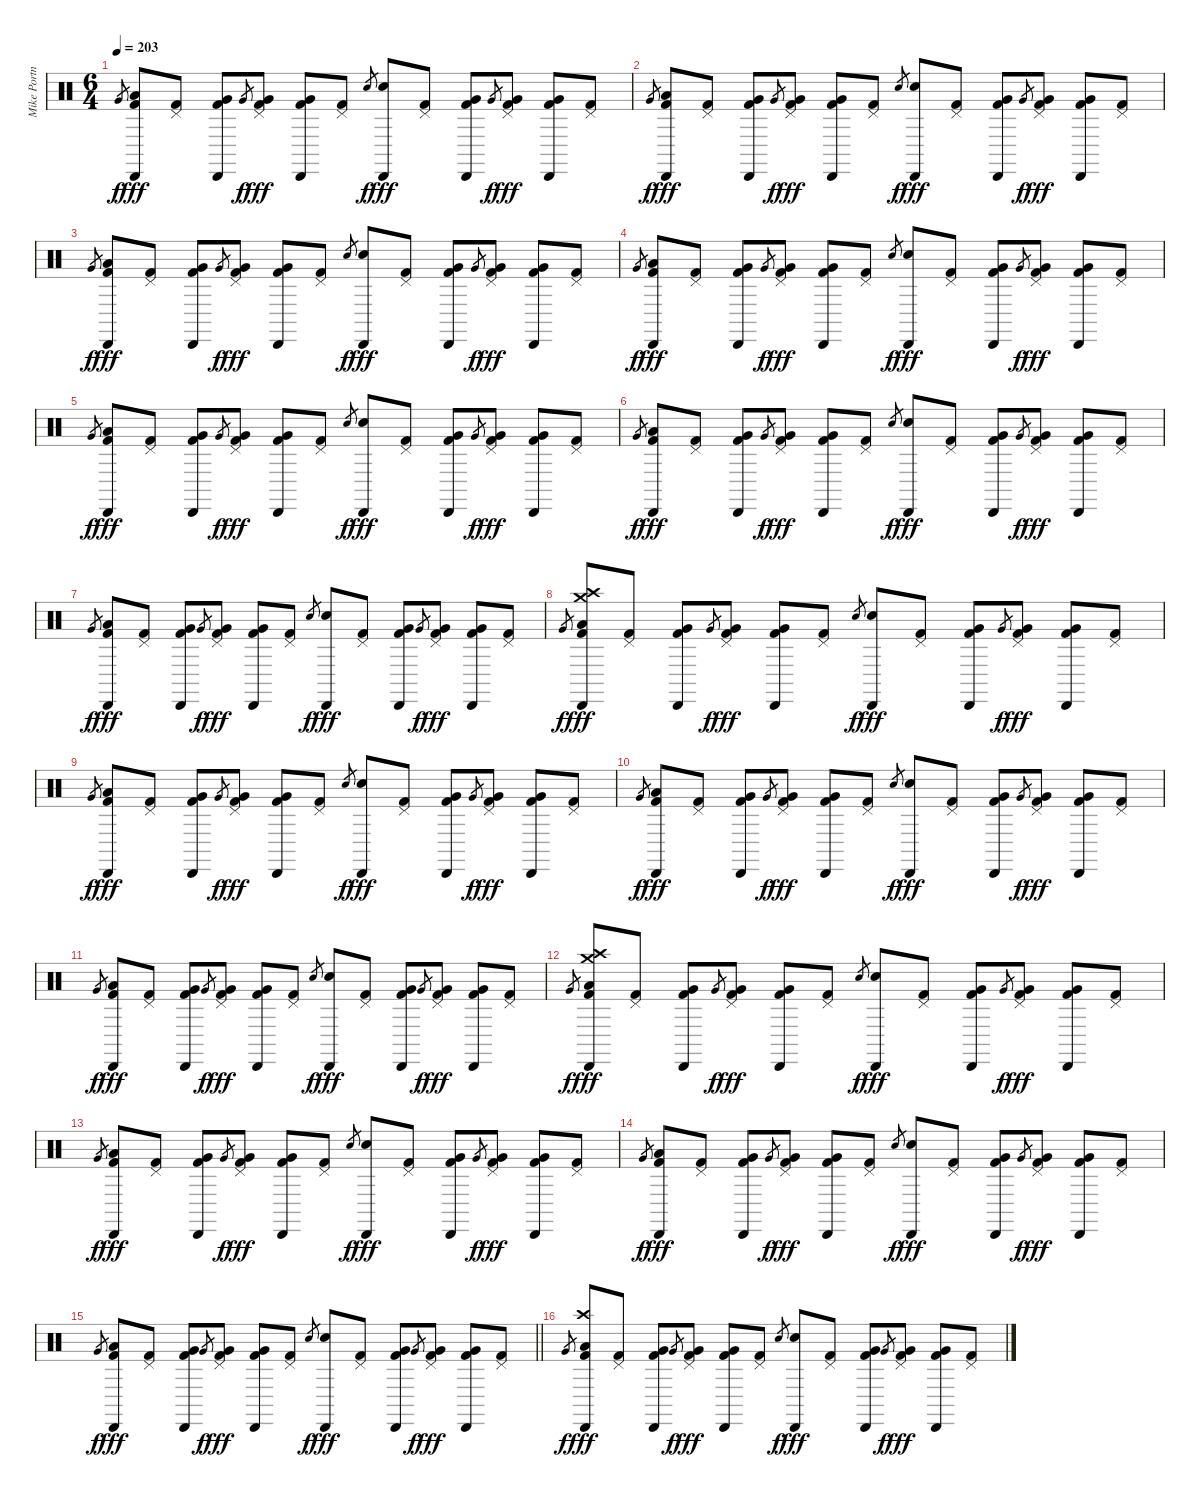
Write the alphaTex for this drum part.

\track ("Mike Portnoy" "Mike Portn") {instrument percussion}
\staff {score}
\articulation defaults
\ts (6 4)
\tempo 203
\clef neutral
\ks c "Very Low Tom (hit)".8{gr dy f}
("Cabasa (hit)" "Low Tom (hit)" "Kick (hit) 2").8{dy fff} ("Pedal Hi-Hat (hit)" "Kick (hit) 2").8 ("Cabasa (hit)" "Very Low Tom (hit)" "Kick (hit) 2").8 "Very Low Tom (hit)".8{gr dy f} ("Pedal Hi-Hat (hit)" "Very Low Tom (hit)" "Kick (hit) 2").8{dy fff} ("Cabasa (hit)" "Very Low Tom (hit)" "Kick (hit) 2").8 ("Pedal Hi-Hat (hit)" "Kick (hit) 2").8 "Electric Snare (hit)".8{gr dy f} ("Cabasa (hit)" "Electric Snare (hit)").8{dy fff} ("Pedal Hi-Hat (hit)" "Kick (hit) 2").8 ("Cabasa (hit)" "Very Low Tom (hit)" "Kick (hit) 2").8 "Very Low Tom (hit)".8{gr dy f} ("Pedal Hi-Hat (hit)" "Very Low Tom (hit)" "Kick (hit) 2").8{dy fff} ("Cabasa (hit)" "Very Low Tom (hit)" "Kick (hit) 2").8 ("Pedal Hi-Hat (hit)" "Kick (hit) 2").8 |
"Very Low Tom (hit)".8{gr dy f} ("Cabasa (hit)" "Low Tom (hit)" "Kick (hit) 2").8{dy fff} ("Pedal Hi-Hat (hit)" "Kick (hit) 2").8 ("Cabasa (hit)" "Very Low Tom (hit)" "Kick (hit) 2").8 "Very Low Tom (hit)".8{gr dy f} ("Pedal Hi-Hat (hit)" "Very Low Tom (hit)" "Kick (hit) 2").8{dy fff} ("Cabasa (hit)" "Very Low Tom (hit)" "Kick (hit) 2").8 ("Pedal Hi-Hat (hit)" "Kick (hit) 2").8 "Electric Snare (hit)".8{gr dy f} ("Cabasa (hit)" "Electric Snare (hit)").8{dy fff} ("Pedal Hi-Hat (hit)" "Kick (hit) 2").8 ("Cabasa (hit)" "Very Low Tom (hit)" "Kick (hit) 2").8 "Very Low Tom (hit)".8{gr dy f} ("Pedal Hi-Hat (hit)" "Very Low Tom (hit)" "Kick (hit) 2").8{dy fff} ("Cabasa (hit)" "Very Low Tom (hit)" "Kick (hit) 2").8 ("Pedal Hi-Hat (hit)" "Kick (hit) 2").8 |
"Very Low Tom (hit)".8{gr dy f} ("Cabasa (hit)" "Low Tom (hit)" "Kick (hit) 2").8{dy fff} ("Pedal Hi-Hat (hit)" "Kick (hit) 2").8 ("Cabasa (hit)" "Very Low Tom (hit)" "Kick (hit) 2").8 "Very Low Tom (hit)".8{gr dy f} ("Pedal Hi-Hat (hit)" "Very Low Tom (hit)" "Kick (hit) 2").8{dy fff} ("Cabasa (hit)" "Very Low Tom (hit)" "Kick (hit) 2").8 ("Pedal Hi-Hat (hit)" "Kick (hit) 2").8 "Electric Snare (hit)".8{gr dy f} ("Cabasa (hit)" "Electric Snare (hit)").8{dy fff} ("Pedal Hi-Hat (hit)" "Kick (hit) 2").8 ("Cabasa (hit)" "Very Low Tom (hit)" "Kick (hit) 2").8 "Very Low Tom (hit)".8{gr dy f} ("Pedal Hi-Hat (hit)" "Very Low Tom (hit)" "Kick (hit) 2").8{dy fff} ("Cabasa (hit)" "Very Low Tom (hit)" "Kick (hit) 2").8 ("Pedal Hi-Hat (hit)" "Kick (hit) 2").8 |
"Very Low Tom (hit)".8{gr dy f} ("Cabasa (hit)" "Low Tom (hit)" "Kick (hit) 2").8{dy fff} ("Pedal Hi-Hat (hit)" "Kick (hit) 2").8 ("Cabasa (hit)" "Very Low Tom (hit)" "Kick (hit) 2").8 "Very Low Tom (hit)".8{gr dy f} ("Pedal Hi-Hat (hit)" "Very Low Tom (hit)" "Kick (hit) 2").8{dy fff} ("Cabasa (hit)" "Very Low Tom (hit)" "Kick (hit) 2").8 ("Pedal Hi-Hat (hit)" "Kick (hit) 2").8 "Electric Snare (hit)".8{gr dy f} ("Cabasa (hit)" "Electric Snare (hit)").8{dy fff} ("Pedal Hi-Hat (hit)" "Kick (hit) 2").8 ("Cabasa (hit)" "Very Low Tom (hit)" "Kick (hit) 2").8 "Very Low Tom (hit)".8{gr dy f} ("Pedal Hi-Hat (hit)" "Very Low Tom (hit)" "Kick (hit) 2").8{dy fff} ("Cabasa (hit)" "Very Low Tom (hit)" "Kick (hit) 2").8 ("Pedal Hi-Hat (hit)" "Kick (hit) 2").8 |
"Very Low Tom (hit)".8{gr dy f} ("Cabasa (hit)" "Low Tom (hit)" "Kick (hit) 2").8{dy fff} ("Pedal Hi-Hat (hit)" "Kick (hit) 2").8 ("Cabasa (hit)" "Very Low Tom (hit)" "Kick (hit) 2").8 "Very Low Tom (hit)".8{gr dy f} ("Pedal Hi-Hat (hit)" "Very Low Tom (hit)" "Kick (hit) 2").8{dy fff} ("Cabasa (hit)" "Very Low Tom (hit)" "Kick (hit) 2").8 ("Pedal Hi-Hat (hit)" "Kick (hit) 2").8 "Electric Snare (hit)".8{gr dy f} ("Cabasa (hit)" "Electric Snare (hit)").8{dy fff} ("Pedal Hi-Hat (hit)" "Kick (hit) 2").8 ("Cabasa (hit)" "Very Low Tom (hit)" "Kick (hit) 2").8 "Very Low Tom (hit)".8{gr dy f} ("Pedal Hi-Hat (hit)" "Very Low Tom (hit)" "Kick (hit) 2").8{dy fff} ("Cabasa (hit)" "Very Low Tom (hit)" "Kick (hit) 2").8 ("Pedal Hi-Hat (hit)" "Kick (hit) 2").8 |
"Very Low Tom (hit)".8{gr dy f} ("Cabasa (hit)" "Low Tom (hit)" "Kick (hit) 2").8{dy fff} ("Pedal Hi-Hat (hit)" "Kick (hit) 2").8 ("Cabasa (hit)" "Very Low Tom (hit)" "Kick (hit) 2").8 "Very Low Tom (hit)".8{gr dy f} ("Pedal Hi-Hat (hit)" "Very Low Tom (hit)" "Kick (hit) 2").8{dy fff} ("Cabasa (hit)" "Very Low Tom (hit)" "Kick (hit) 2").8 ("Pedal Hi-Hat (hit)" "Kick (hit) 2").8 "Electric Snare (hit)".8{gr dy f} ("Cabasa (hit)" "Electric Snare (hit)").8{dy fff} ("Pedal Hi-Hat (hit)" "Kick (hit) 2").8 ("Cabasa (hit)" "Very Low Tom (hit)" "Kick (hit) 2").8 "Very Low Tom (hit)".8{gr dy f} ("Pedal Hi-Hat (hit)" "Very Low Tom (hit)" "Kick (hit) 2").8{dy fff} ("Cabasa (hit)" "Very Low Tom (hit)" "Kick (hit) 2").8 ("Pedal Hi-Hat (hit)" "Kick (hit) 2").8 |
"Very Low Tom (hit)".8{gr dy f} ("Cabasa (hit)" "Low Tom (hit)" "Kick (hit) 2").8{dy fff} ("Pedal Hi-Hat (hit)" "Kick (hit) 2").8 ("Cabasa (hit)" "Very Low Tom (hit)" "Kick (hit) 2").8 "Very Low Tom (hit)".8{gr dy f} ("Pedal Hi-Hat (hit)" "Very Low Tom (hit)" "Kick (hit) 2").8{dy fff} ("Cabasa (hit)" "Very Low Tom (hit)" "Kick (hit) 2").8 ("Pedal Hi-Hat (hit)" "Kick (hit) 2").8 "Electric Snare (hit)".8{gr dy f} ("Cabasa (hit)" "Electric Snare (hit)").8{dy fff} ("Pedal Hi-Hat (hit)" "Kick (hit) 2").8 ("Cabasa (hit)" "Very Low Tom (hit)" "Kick (hit) 2").8 "Very Low Tom (hit)".8{gr dy f} ("Pedal Hi-Hat (hit)" "Very Low Tom (hit)" "Kick (hit) 2").8{dy fff} ("Cabasa (hit)" "Very Low Tom (hit)" "Kick (hit) 2").8 ("Pedal Hi-Hat (hit)" "Kick (hit) 2").8 |
"Very Low Tom (hit)".8{gr dy f} ("Crash high (hit)" "Crash medium (hit)" "Cabasa (hit)" "Low Tom (hit)" "Kick (hit) 2").8{dy fff} ("Pedal Hi-Hat (hit)" "Kick (hit) 2").8 ("Cabasa (hit)" "Very Low Tom (hit)" "Kick (hit) 2").8 "Very Low Tom (hit)".8{gr dy f} ("Pedal Hi-Hat (hit)" "Very Low Tom (hit)" "Kick (hit) 2").8{dy fff} ("Cabasa (hit)" "Very Low Tom (hit)" "Kick (hit) 2").8 ("Pedal Hi-Hat (hit)" "Kick (hit) 2").8 "Electric Snare (hit)".8{gr dy f} ("Cabasa (hit)" "Electric Snare (hit)").8{dy fff} ("Pedal Hi-Hat (hit)" "Kick (hit) 2").8 ("Cabasa (hit)" "Very Low Tom (hit)" "Kick (hit) 2").8 "Very Low Tom (hit)".8{gr dy f} ("Pedal Hi-Hat (hit)" "Very Low Tom (hit)" "Kick (hit) 2").8{dy fff} ("Cabasa (hit)" "Very Low Tom (hit)" "Kick (hit) 2").8 ("Pedal Hi-Hat (hit)" "Kick (hit) 2").8 |
"Very Low Tom (hit)".8{gr dy f} ("Cabasa (hit)" "Low Tom (hit)" "Kick (hit) 2").8{dy fff} ("Pedal Hi-Hat (hit)" "Kick (hit) 2").8 ("Cabasa (hit)" "Very Low Tom (hit)" "Kick (hit) 2").8 "Very Low Tom (hit)".8{gr dy f} ("Pedal Hi-Hat (hit)" "Very Low Tom (hit)" "Kick (hit) 2").8{dy fff} ("Cabasa (hit)" "Very Low Tom (hit)" "Kick (hit) 2").8 ("Pedal Hi-Hat (hit)" "Kick (hit) 2").8 "Electric Snare (hit)".8{gr dy f} ("Cabasa (hit)" "Electric Snare (hit)").8{dy fff} ("Pedal Hi-Hat (hit)" "Kick (hit) 2").8 ("Cabasa (hit)" "Very Low Tom (hit)" "Kick (hit) 2").8 "Very Low Tom (hit)".8{gr dy f} ("Pedal Hi-Hat (hit)" "Very Low Tom (hit)" "Kick (hit) 2").8{dy fff} ("Cabasa (hit)" "Very Low Tom (hit)" "Kick (hit) 2").8 ("Pedal Hi-Hat (hit)" "Kick (hit) 2").8 |
"Very Low Tom (hit)".8{gr dy f} ("Cabasa (hit)" "Low Tom (hit)" "Kick (hit) 2").8{dy fff} ("Pedal Hi-Hat (hit)" "Kick (hit) 2").8 ("Cabasa (hit)" "Very Low Tom (hit)" "Kick (hit) 2").8 "Very Low Tom (hit)".8{gr dy f} ("Pedal Hi-Hat (hit)" "Very Low Tom (hit)" "Kick (hit) 2").8{dy fff} ("Cabasa (hit)" "Very Low Tom (hit)" "Kick (hit) 2").8 ("Pedal Hi-Hat (hit)" "Kick (hit) 2").8 "Electric Snare (hit)".8{gr dy f} ("Cabasa (hit)" "Electric Snare (hit)").8{dy fff} ("Pedal Hi-Hat (hit)" "Kick (hit) 2").8 ("Cabasa (hit)" "Very Low Tom (hit)" "Kick (hit) 2").8 "Very Low Tom (hit)".8{gr dy f} ("Pedal Hi-Hat (hit)" "Very Low Tom (hit)" "Kick (hit) 2").8{dy fff} ("Cabasa (hit)" "Very Low Tom (hit)" "Kick (hit) 2").8 ("Pedal Hi-Hat (hit)" "Kick (hit) 2").8 |
"Very Low Tom (hit)".8{gr dy f} ("Cabasa (hit)" "Low Tom (hit)" "Kick (hit) 2").8{dy fff} ("Pedal Hi-Hat (hit)" "Kick (hit) 2").8 ("Cabasa (hit)" "Very Low Tom (hit)" "Kick (hit) 2").8 "Very Low Tom (hit)".8{gr dy f} ("Pedal Hi-Hat (hit)" "Very Low Tom (hit)" "Kick (hit) 2").8{dy fff} ("Cabasa (hit)" "Very Low Tom (hit)" "Kick (hit) 2").8 ("Pedal Hi-Hat (hit)" "Kick (hit) 2").8 "Electric Snare (hit)".8{gr dy f} ("Cabasa (hit)" "Electric Snare (hit)").8{dy fff} ("Pedal Hi-Hat (hit)" "Kick (hit) 2").8 ("Cabasa (hit)" "Very Low Tom (hit)" "Kick (hit) 2").8 "Very Low Tom (hit)".8{gr dy f} ("Pedal Hi-Hat (hit)" "Very Low Tom (hit)" "Kick (hit) 2").8{dy fff} ("Cabasa (hit)" "Very Low Tom (hit)" "Kick (hit) 2").8 ("Pedal Hi-Hat (hit)" "Kick (hit) 2").8 |
"Very Low Tom (hit)".8{gr dy f} ("Crash high (hit)" "Crash medium (hit)" "Cabasa (hit)" "Low Tom (hit)" "Kick (hit) 2").8{dy fff} ("Pedal Hi-Hat (hit)" "Kick (hit) 2").8 ("Cabasa (hit)" "Very Low Tom (hit)" "Kick (hit) 2").8 "Very Low Tom (hit)".8{gr dy f} ("Pedal Hi-Hat (hit)" "Very Low Tom (hit)" "Kick (hit) 2").8{dy fff} ("Cabasa (hit)" "Very Low Tom (hit)" "Kick (hit) 2").8 ("Pedal Hi-Hat (hit)" "Kick (hit) 2").8 "Electric Snare (hit)".8{gr dy f} ("Cabasa (hit)" "Electric Snare (hit)").8{dy fff} ("Pedal Hi-Hat (hit)" "Kick (hit) 2").8 ("Cabasa (hit)" "Very Low Tom (hit)" "Kick (hit) 2").8 "Very Low Tom (hit)".8{gr dy f} ("Pedal Hi-Hat (hit)" "Very Low Tom (hit)" "Kick (hit) 2").8{dy fff} ("Cabasa (hit)" "Very Low Tom (hit)" "Kick (hit) 2").8 ("Pedal Hi-Hat (hit)" "Kick (hit) 2").8 |
"Very Low Tom (hit)".8{gr dy f} ("Cabasa (hit)" "Low Tom (hit)" "Kick (hit) 2").8{dy fff} ("Pedal Hi-Hat (hit)" "Kick (hit) 2").8 ("Cabasa (hit)" "Very Low Tom (hit)" "Kick (hit) 2").8 "Very Low Tom (hit)".8{gr dy f} ("Pedal Hi-Hat (hit)" "Very Low Tom (hit)" "Kick (hit) 2").8{dy fff} ("Cabasa (hit)" "Very Low Tom (hit)" "Kick (hit) 2").8 ("Pedal Hi-Hat (hit)" "Kick (hit) 2").8 "Electric Snare (hit)".8{gr dy f} ("Cabasa (hit)" "Electric Snare (hit)").8{dy fff} ("Pedal Hi-Hat (hit)" "Kick (hit) 2").8 ("Cabasa (hit)" "Very Low Tom (hit)" "Kick (hit) 2").8 "Very Low Tom (hit)".8{gr dy f} ("Pedal Hi-Hat (hit)" "Very Low Tom (hit)" "Kick (hit) 2").8{dy fff} ("Cabasa (hit)" "Very Low Tom (hit)" "Kick (hit) 2").8 ("Pedal Hi-Hat (hit)" "Kick (hit) 2").8 |
"Very Low Tom (hit)".8{gr dy f} ("Cabasa (hit)" "Low Tom (hit)" "Kick (hit) 2").8{dy fff} ("Pedal Hi-Hat (hit)" "Kick (hit) 2").8 ("Cabasa (hit)" "Very Low Tom (hit)" "Kick (hit) 2").8 "Very Low Tom (hit)".8{gr dy f} ("Pedal Hi-Hat (hit)" "Very Low Tom (hit)" "Kick (hit) 2").8{dy fff} ("Cabasa (hit)" "Very Low Tom (hit)" "Kick (hit) 2").8 ("Pedal Hi-Hat (hit)" "Kick (hit) 2").8 "Electric Snare (hit)".8{gr dy f} ("Cabasa (hit)" "Electric Snare (hit)").8{dy fff} ("Pedal Hi-Hat (hit)" "Kick (hit) 2").8 ("Cabasa (hit)" "Very Low Tom (hit)" "Kick (hit) 2").8 "Very Low Tom (hit)".8{gr dy f} ("Pedal Hi-Hat (hit)" "Very Low Tom (hit)" "Kick (hit) 2").8{dy fff} ("Cabasa (hit)" "Very Low Tom (hit)" "Kick (hit) 2").8 ("Pedal Hi-Hat (hit)" "Kick (hit) 2").8 |
\barLineRight lightlight "Very Low Tom (hit)".8{gr dy f}
("Cabasa (hit)" "Low Tom (hit)" "Kick (hit) 2").8{dy fff} ("Pedal Hi-Hat (hit)" "Kick (hit) 2").8 ("Cabasa (hit)" "Very Low Tom (hit)" "Kick (hit) 2").8 "Very Low Tom (hit)".8{gr dy f} ("Pedal Hi-Hat (hit)" "Very Low Tom (hit)" "Kick (hit) 2").8{dy fff} ("Cabasa (hit)" "Very Low Tom (hit)" "Kick (hit) 2").8 ("Pedal Hi-Hat (hit)" "Kick (hit) 2").8 "Electric Snare (hit)".8{gr dy f} ("Cabasa (hit)" "Electric Snare (hit)").8{dy fff} ("Pedal Hi-Hat (hit)" "Kick (hit) 2").8 ("Cabasa (hit)" "Very Low Tom (hit)" "Kick (hit) 2").8 "Very Low Tom (hit)".8{gr dy f} ("Pedal Hi-Hat (hit)" "Very Low Tom (hit)" "Kick (hit) 2").8{dy fff} ("Cabasa (hit)" "Very Low Tom (hit)" "Kick (hit) 2").8 ("Pedal Hi-Hat (hit)" "Kick (hit) 2").8 |
"Very Low Tom (hit)".8{gr dy f} ("Crash high (hit)" "Cabasa (hit)" "Low Tom (hit)" "Kick (hit) 2").8{dy fff} ("Pedal Hi-Hat (hit)" "Kick (hit) 2").8 ("Cabasa (hit)" "Very Low Tom (hit)" "Kick (hit) 2").8 "Very Low Tom (hit)".8{gr dy f} ("Pedal Hi-Hat (hit)" "Very Low Tom (hit)" "Kick (hit) 2").8{dy fff} ("Cabasa (hit)" "Very Low Tom (hit)" "Kick (hit) 2").8 ("Pedal Hi-Hat (hit)" "Kick (hit) 2").8 "Electric Snare (hit)".8{gr dy f} ("Cabasa (hit)" "Electric Snare (hit)").8{dy fff} ("Pedal Hi-Hat (hit)" "Kick (hit) 2").8 ("Cabasa (hit)" "Very Low Tom (hit)" "Kick (hit) 2").8 "Very Low Tom (hit)".8{gr dy f} ("Pedal Hi-Hat (hit)" "Very Low Tom (hit)" "Kick (hit) 2").8{dy fff} ("Cabasa (hit)" "Very Low Tom (hit)" "Kick (hit) 2").8 ("Pedal Hi-Hat (hit)" "Kick (hit) 2").8
